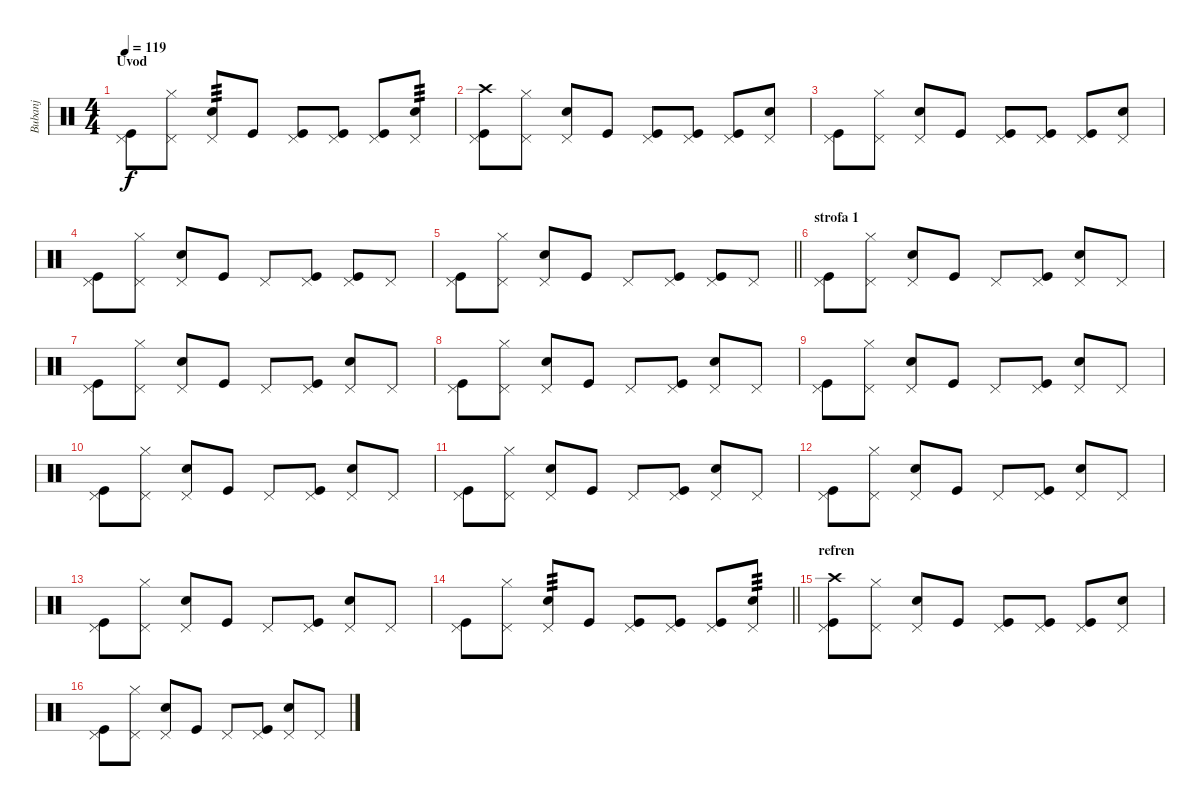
\track ("Bubanj" "Bubanj") {instrument percussion}
\staff {score}
\articulation defaults
\ts (4 4)
\section ("" "Uvod")
\tempo 119
\clef neutral
\ks c
("Pedal Hi-Hat (hit)" "Kick (hit)").8{dy f} ("Pedal Hi-Hat (hit)" "Hi-Hat (closed)").8 ("Pedal Hi-Hat (hit)" "Electric Snare (hit)").8{tp 3} "Kick (hit)".8 ("Pedal Hi-Hat (hit)" "Kick (hit)").8 ("Pedal Hi-Hat (hit)" "Kick (hit)").8 ("Pedal Hi-Hat (hit)" "Kick (hit)").8 ("Pedal Hi-Hat (hit)" "Electric Snare (hit)").8{tp 3} |
("Pedal Hi-Hat (hit)" "Crash high (hit)" "Kick (hit)").8 ("Pedal Hi-Hat (hit)" "Hi-Hat (closed)").8 ("Pedal Hi-Hat (hit)" "Electric Snare (hit)").8 "Kick (hit)".8 ("Pedal Hi-Hat (hit)" "Kick (hit)").8 ("Pedal Hi-Hat (hit)" "Kick (hit)").8 ("Pedal Hi-Hat (hit)" "Kick (hit)").8 ("Pedal Hi-Hat (hit)" "Electric Snare (hit)").8 |
("Pedal Hi-Hat (hit)" "Kick (hit)").8 ("Pedal Hi-Hat (hit)" "Hi-Hat (closed)").8 ("Pedal Hi-Hat (hit)" "Electric Snare (hit)").8 "Kick (hit)".8 ("Pedal Hi-Hat (hit)" "Kick (hit)").8 ("Pedal Hi-Hat (hit)" "Kick (hit)").8 ("Pedal Hi-Hat (hit)" "Kick (hit)").8 ("Pedal Hi-Hat (hit)" "Electric Snare (hit)").8 |
("Pedal Hi-Hat (hit)" "Kick (hit)").8 ("Pedal Hi-Hat (hit)" "Hi-Hat (closed)").8 ("Pedal Hi-Hat (hit)" "Electric Snare (hit)").8 "Kick (hit)".8 "Pedal Hi-Hat (hit)".8 ("Pedal Hi-Hat (hit)" "Kick (hit)").8 ("Pedal Hi-Hat (hit)" "Kick (hit)").8 "Pedal Hi-Hat (hit)".8 |
\barLineRight lightlight
("Pedal Hi-Hat (hit)" "Kick (hit)").8 ("Pedal Hi-Hat (hit)" "Hi-Hat (closed)").8 ("Pedal Hi-Hat (hit)" "Electric Snare (hit)").8 "Kick (hit)".8 "Pedal Hi-Hat (hit)".8 ("Pedal Hi-Hat (hit)" "Kick (hit)").8 ("Pedal Hi-Hat (hit)" "Kick (hit)").8 "Pedal Hi-Hat (hit)".8 |
\section ("" "strofa 1")
("Pedal Hi-Hat (hit)" "Kick (hit)").8 ("Pedal Hi-Hat (hit)" "Hi-Hat (closed)").8 ("Pedal Hi-Hat (hit)" "Electric Snare (hit)").8 "Kick (hit)".8 "Pedal Hi-Hat (hit)".8 ("Pedal Hi-Hat (hit)" "Kick (hit)").8 ("Pedal Hi-Hat (hit)" "Electric Snare (hit)").8 "Pedal Hi-Hat (hit)".8 |
("Pedal Hi-Hat (hit)" "Kick (hit)").8 ("Pedal Hi-Hat (hit)" "Hi-Hat (closed)").8 ("Pedal Hi-Hat (hit)" "Electric Snare (hit)").8 "Kick (hit)".8 "Pedal Hi-Hat (hit)".8 ("Pedal Hi-Hat (hit)" "Kick (hit)").8 ("Pedal Hi-Hat (hit)" "Electric Snare (hit)").8 "Pedal Hi-Hat (hit)".8 |
("Pedal Hi-Hat (hit)" "Kick (hit)").8 ("Pedal Hi-Hat (hit)" "Hi-Hat (closed)").8 ("Pedal Hi-Hat (hit)" "Electric Snare (hit)").8 "Kick (hit)".8 "Pedal Hi-Hat (hit)".8 ("Pedal Hi-Hat (hit)" "Kick (hit)").8 ("Pedal Hi-Hat (hit)" "Electric Snare (hit)").8 "Pedal Hi-Hat (hit)".8 |
("Pedal Hi-Hat (hit)" "Kick (hit)").8 ("Pedal Hi-Hat (hit)" "Hi-Hat (closed)").8 ("Pedal Hi-Hat (hit)" "Electric Snare (hit)").8 "Kick (hit)".8 "Pedal Hi-Hat (hit)".8 ("Pedal Hi-Hat (hit)" "Kick (hit)").8 ("Pedal Hi-Hat (hit)" "Electric Snare (hit)").8 "Pedal Hi-Hat (hit)".8 |
("Pedal Hi-Hat (hit)" "Kick (hit)").8 ("Pedal Hi-Hat (hit)" "Hi-Hat (closed)").8 ("Pedal Hi-Hat (hit)" "Electric Snare (hit)").8 "Kick (hit)".8 "Pedal Hi-Hat (hit)".8 ("Pedal Hi-Hat (hit)" "Kick (hit)").8 ("Pedal Hi-Hat (hit)" "Electric Snare (hit)").8 "Pedal Hi-Hat (hit)".8 |
("Pedal Hi-Hat (hit)" "Kick (hit)").8 ("Pedal Hi-Hat (hit)" "Hi-Hat (closed)").8 ("Pedal Hi-Hat (hit)" "Electric Snare (hit)").8 "Kick (hit)".8 "Pedal Hi-Hat (hit)".8 ("Pedal Hi-Hat (hit)" "Kick (hit)").8 ("Pedal Hi-Hat (hit)" "Electric Snare (hit)").8 "Pedal Hi-Hat (hit)".8 |
("Pedal Hi-Hat (hit)" "Kick (hit)").8 ("Pedal Hi-Hat (hit)" "Hi-Hat (closed)").8 ("Pedal Hi-Hat (hit)" "Electric Snare (hit)").8 "Kick (hit)".8 "Pedal Hi-Hat (hit)".8 ("Pedal Hi-Hat (hit)" "Kick (hit)").8 ("Pedal Hi-Hat (hit)" "Electric Snare (hit)").8 "Pedal Hi-Hat (hit)".8 |
("Pedal Hi-Hat (hit)" "Kick (hit)").8 ("Pedal Hi-Hat (hit)" "Hi-Hat (closed)").8 ("Pedal Hi-Hat (hit)" "Electric Snare (hit)").8 "Kick (hit)".8 "Pedal Hi-Hat (hit)".8 ("Pedal Hi-Hat (hit)" "Kick (hit)").8 ("Pedal Hi-Hat (hit)" "Electric Snare (hit)").8 "Pedal Hi-Hat (hit)".8 |
\barLineRight lightlight
("Pedal Hi-Hat (hit)" "Kick (hit)").8 ("Pedal Hi-Hat (hit)" "Hi-Hat (closed)").8 ("Pedal Hi-Hat (hit)" "Electric Snare (hit)").8{tp 3} "Kick (hit)".8 ("Pedal Hi-Hat (hit)" "Kick (hit)").8 ("Pedal Hi-Hat (hit)" "Kick (hit)").8 ("Pedal Hi-Hat (hit)" "Kick (hit)").8 ("Pedal Hi-Hat (hit)" "Electric Snare (hit)").8{tp 3} |
\section ("" "refren")
("Pedal Hi-Hat (hit)" "Crash high (hit)" "Kick (hit)").8 ("Pedal Hi-Hat (hit)" "Hi-Hat (closed)").8 ("Pedal Hi-Hat (hit)" "Electric Snare (hit)").8 "Kick (hit)".8 ("Pedal Hi-Hat (hit)" "Kick (hit)").8 ("Pedal Hi-Hat (hit)" "Kick (hit)").8 ("Pedal Hi-Hat (hit)" "Kick (hit)").8 ("Pedal Hi-Hat (hit)" "Electric Snare (hit)").8 |
("Pedal Hi-Hat (hit)" "Kick (hit)").8 ("Pedal Hi-Hat (hit)" "Hi-Hat (closed)").8 ("Pedal Hi-Hat (hit)" "Electric Snare (hit)").8 "Kick (hit)".8 "Pedal Hi-Hat (hit)".8 ("Pedal Hi-Hat (hit)" "Kick (hit)").8 ("Pedal Hi-Hat (hit)" "Electric Snare (hit)").8 "Pedal Hi-Hat (hit)".8
